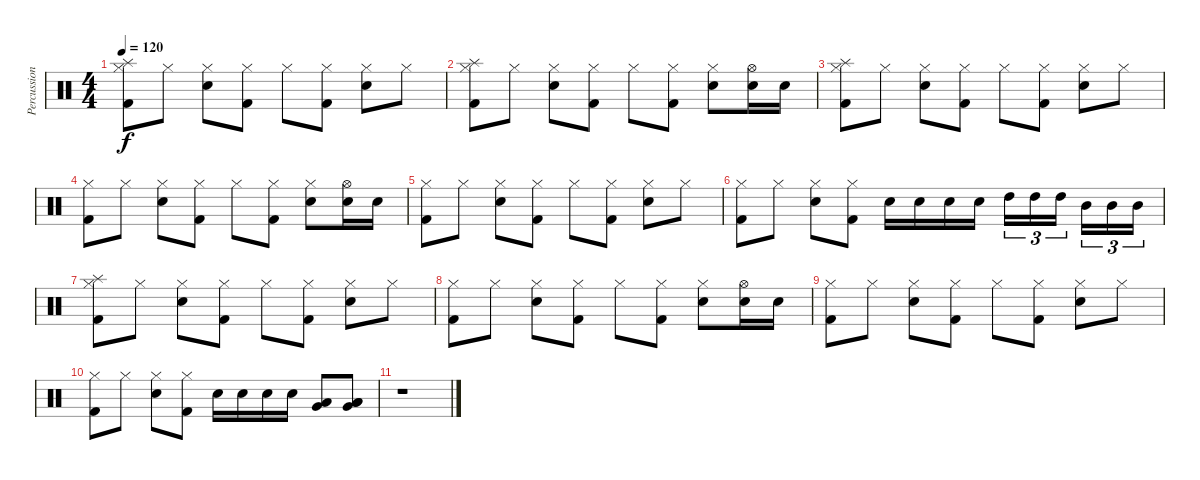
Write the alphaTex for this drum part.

\track ("Percussion" "Percussion") {instrument percussion}
\staff {score}
\articulation defaults
\ts (4 4)
\tempo 120
\clef neutral
\ks c
("Kick (hit) 2" "Hi-Hat (closed)" "Splash (hit)").8{dy f} "Hi-Hat (closed)".8 ("Hi-Hat (closed)" "Electric Snare (hit)").8 ("Kick (hit) 2" "Hi-Hat (closed)").8 "Hi-Hat (closed)".8 ("Kick (hit) 2" "Hi-Hat (closed)").8 ("Hi-Hat (closed)" "Electric Snare (hit)").8 "Hi-Hat (closed)".8 |
("Kick (hit) 2" "Hi-Hat (closed)" "Splash (hit)").8 "Hi-Hat (closed)".8 ("Hi-Hat (closed)" "Electric Snare (hit)").8 ("Kick (hit) 2" "Hi-Hat (closed)").8 "Hi-Hat (closed)".8 ("Kick (hit) 2" "Hi-Hat (closed)").8 ("Hi-Hat (closed)" "Electric Snare (hit)").8 ("Hi-Hat (open)" "Electric Snare (hit)").16 "Electric Snare (hit)".16 |
("Kick (hit) 2" "Hi-Hat (closed)" "Splash (hit)").8 "Hi-Hat (closed)".8 ("Hi-Hat (closed)" "Electric Snare (hit)").8 ("Kick (hit) 2" "Hi-Hat (closed)").8 "Hi-Hat (closed)".8 ("Kick (hit) 2" "Hi-Hat (closed)").8 ("Hi-Hat (closed)" "Electric Snare (hit)").8 "Hi-Hat (closed)".8 |
("Kick (hit) 2" "Hi-Hat (closed)").8 "Hi-Hat (closed)".8 ("Hi-Hat (closed)" "Electric Snare (hit)").8 ("Kick (hit) 2" "Hi-Hat (closed)").8 "Hi-Hat (closed)".8 ("Kick (hit) 2" "Hi-Hat (closed)").8 ("Hi-Hat (closed)" "Electric Snare (hit)").8 ("Hi-Hat (open)" "Electric Snare (hit)").16 "Electric Snare (hit)".16 |
("Kick (hit) 2" "Hi-Hat (closed)").8 "Hi-Hat (closed)".8 ("Hi-Hat (closed)" "Electric Snare (hit)").8 ("Kick (hit) 2" "Hi-Hat (closed)").8 "Hi-Hat (closed)".8 ("Kick (hit) 2" "Hi-Hat (closed)").8 ("Hi-Hat (closed)" "Electric Snare (hit)").8 "Hi-Hat (closed)".8 |
("Kick (hit) 2" "Hi-Hat (closed)").8 "Hi-Hat (closed)".8 ("Hi-Hat (closed)" "Electric Snare (hit)").8 ("Kick (hit) 2" "Hi-Hat (closed)").8 "Electric Snare (hit)".16 "Electric Snare (hit)".16 "Electric Snare (hit)".16 "Electric Snare (hit)".16 "High Tom (hit)".16{tu (3 2)} "High Tom (hit)".16{tu (3 2)} "High Tom (hit)".16{tu (3 2) beam splitsecondary} "Mid Tom (hit)".16{tu (3 2)} "Mid Tom (hit)".16{tu (3 2)} "Mid Tom (hit)".16{tu (3 2)} |
("Kick (hit) 2" "Hi-Hat (closed)" "Splash (hit)").8 "Hi-Hat (closed)".8 ("Hi-Hat (closed)" "Electric Snare (hit)").8 ("Kick (hit) 2" "Hi-Hat (closed)").8 "Hi-Hat (closed)".8 ("Kick (hit) 2" "Hi-Hat (closed)").8 ("Hi-Hat (closed)" "Electric Snare (hit)").8 "Hi-Hat (closed)".8 |
("Kick (hit) 2" "Hi-Hat (closed)").8 "Hi-Hat (closed)".8 ("Hi-Hat (closed)" "Electric Snare (hit)").8 ("Kick (hit) 2" "Hi-Hat (closed)").8 "Hi-Hat (closed)".8 ("Kick (hit) 2" "Hi-Hat (closed)").8 ("Hi-Hat (closed)" "Electric Snare (hit)").8 ("Hi-Hat (open)" "Electric Snare (hit)").16 "Electric Snare (hit)".16 |
("Kick (hit) 2" "Hi-Hat (closed)").8 "Hi-Hat (closed)".8 ("Hi-Hat (closed)" "Electric Snare (hit)").8 ("Kick (hit) 2" "Hi-Hat (closed)").8 "Hi-Hat (closed)".8 ("Kick (hit) 2" "Hi-Hat (closed)").8 ("Hi-Hat (closed)" "Electric Snare (hit)").8 "Hi-Hat (closed)".8 |
("Kick (hit) 2" "Hi-Hat (closed)").8 "Hi-Hat (closed)".8 ("Hi-Hat (closed)" "Electric Snare (hit)").8 ("Kick (hit) 2" "Hi-Hat (closed)").8 "Electric Snare (hit)".16 "Electric Snare (hit)".16 "Electric Snare (hit)".16 "Electric Snare (hit)".16 ("Low Tom (hit)" "Very Low Tom (hit)").8 ("Low Tom (hit)" "Very Low Tom (hit)" "Low Floor Tom (hit)").8 |
r.1
